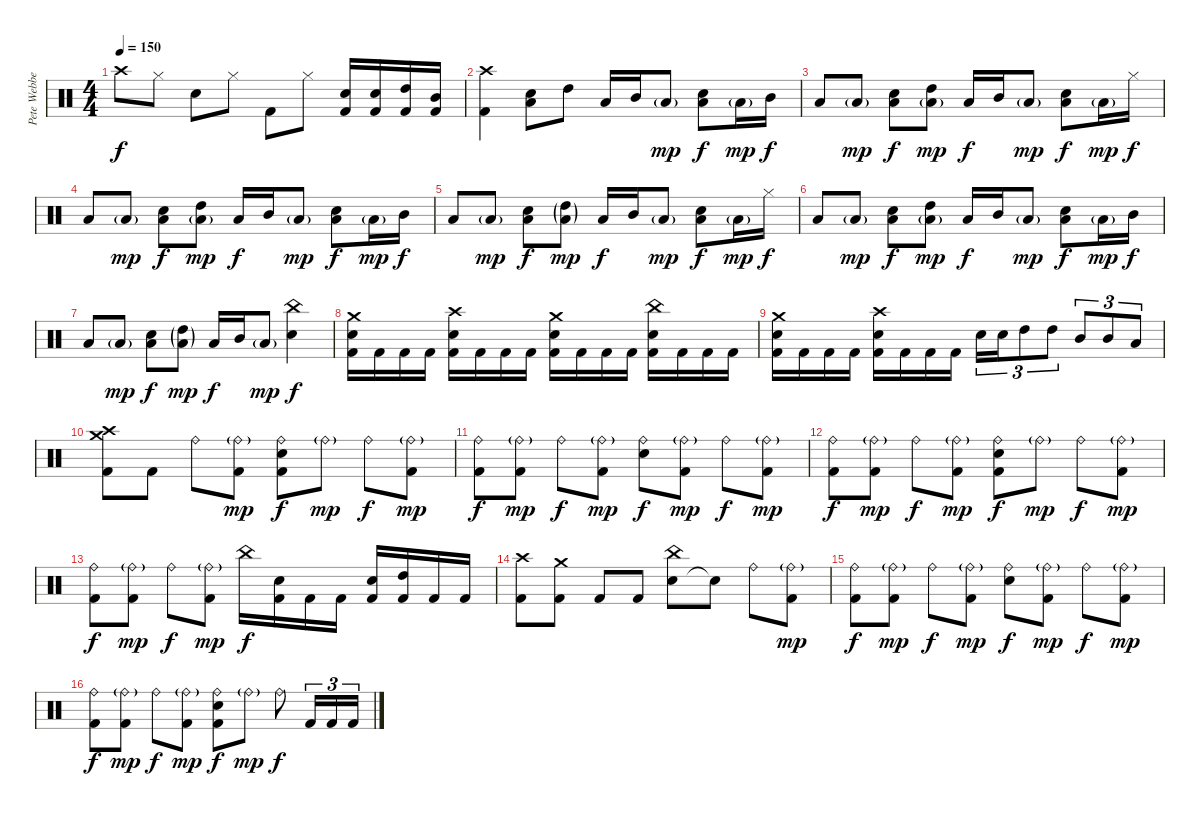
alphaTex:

\track ("Pete Webber" "Pete Webbe") {instrument percussion}
\staff {score}
\articulation defaults
\ts (4 4)
\tempo 150
\clef neutral
\ks c "Crash high (hit)".8{dy f} "Hi-Hat (closed)".8 "Electric Snare (hit)".8 "Hi-Hat (closed)".8 "Kick (hit) 2".8 "Hi-Hat (closed)".8
("Electric Snare (hit)" "Kick (hit) 2").16 ("Electric Snare (hit)" "Kick (hit) 2").16 ("High Tom (hit)" "Kick (hit) 2").16 ("Mid Tom (hit)" "Kick (hit) 2").16 |
("Kick (hit) 2" "Crash high (hit)").4 ("Electric Snare (hit)" "Low Floor Tom (hit)").8 "High Tom (hit)".8 "Low Floor Tom (hit)".16 "Mid Tom (hit)".16 "Low Floor Tom (hit)"{g}.8{dy mp} ("Electric Snare (hit)" "Low Floor Tom (hit)").8{dy f} "Low Floor Tom (hit)"{g}.16{dy mp} "Mid Tom (hit)".16{dy f} |
"Low Floor Tom (hit)".8 "Low Floor Tom (hit)"{g}.8{dy mp} ("Electric Snare (hit)" "Low Floor Tom (hit)").8{dy f} ("High Tom (hit)" "Low Floor Tom (hit)"{g}).8{dy mp} "Low Floor Tom (hit)".16{dy f} "Mid Tom (hit)".16 "Low Floor Tom (hit)"{g}.8{dy mp} ("Electric Snare (hit)" "Low Floor Tom (hit)").8{dy f} "Low Floor Tom (hit)"{g}.16{dy mp} "Hi-Hat (closed)".16{dy f} |
"Low Floor Tom (hit)".8 "Low Floor Tom (hit)"{g}.8{dy mp} ("Electric Snare (hit)" "Low Floor Tom (hit)").8{dy f} ("High Tom (hit)" "Low Floor Tom (hit)"{g}).8{dy mp} "Low Floor Tom (hit)".16{dy f} "Mid Tom (hit)".16 "Low Floor Tom (hit)"{g}.8{dy mp} ("Electric Snare (hit)" "Low Floor Tom (hit)").8{dy f} "Low Floor Tom (hit)"{g}.16{dy mp} "Mid Tom (hit)".16{dy f} |
"Low Floor Tom (hit)".8 "Low Floor Tom (hit)"{g}.8{dy mp} ("Electric Snare (hit)" "Low Floor Tom (hit)").8{dy f} ("High Tom (hit)"{g} "Low Floor Tom (hit)"{g}).8{dy mp} "Low Floor Tom (hit)".16{dy f} "Mid Tom (hit)".16 "Low Floor Tom (hit)"{g}.8{dy mp} ("Electric Snare (hit)" "Low Floor Tom (hit)").8{dy f} "Low Floor Tom (hit)"{g}.16{dy mp} "Hi-Hat (closed)".16{dy f} |
"Low Floor Tom (hit)".8 "Low Floor Tom (hit)"{g}.8{dy mp} ("Electric Snare (hit)" "Low Floor Tom (hit)").8{dy f} ("High Tom (hit)" "Low Floor Tom (hit)"{g}).8{dy mp} "Low Floor Tom (hit)".16{dy f} "Mid Tom (hit)".16 "Low Floor Tom (hit)"{g}.8{dy mp} ("Electric Snare (hit)" "Low Floor Tom (hit)").8{dy f} "Low Floor Tom (hit)"{g}.16{dy mp} "Mid Tom (hit)".16{dy f} |
"Low Floor Tom (hit)".8 "Low Floor Tom (hit)"{g}.8{dy mp} ("Electric Snare (hit)" "Low Floor Tom (hit)").8{dy f} ("High Tom (hit)"{g} "Low Floor Tom (hit)"{g}).8{dy mp} "Low Floor Tom (hit)".16{dy f} "Mid Tom (hit)".16 "Low Floor Tom (hit)"{g}.8{dy mp} ("Electric Snare (hit)" "China (hit)").4{dy f} |
("Electric Snare (hit)" "Kick (hit) 2" "Crash medium (hit)").16 "Kick (hit) 2".16 "Kick (hit) 2".16 "Kick (hit) 2".16 ("Electric Snare (hit)" "Kick (hit) 2" "Crash high (hit)").16 "Kick (hit) 2".16 "Kick (hit) 2".16 "Kick (hit) 2".16 ("Electric Snare (hit)" "Kick (hit) 2" "Crash medium (hit)").16 "Kick (hit) 2".16 "Kick (hit) 2".16 "Kick (hit) 2".16 ("Electric Snare (hit)" "Kick (hit) 2" "China (hit)").16 "Kick (hit) 2".16 "Kick (hit) 2".16 "Kick (hit) 2".16 |
("Electric Snare (hit)" "Kick (hit) 2" "Crash medium (hit)").16 "Kick (hit) 2".16 "Kick (hit) 2".16 "Kick (hit) 2".16 ("Electric Snare (hit)" "Kick (hit) 2" "Crash high (hit)").16 "Kick (hit) 2".16 "Kick (hit) 2".16 "Kick (hit) 2".16 "Electric Snare (hit)".16{tu (3 2)} "Electric Snare (hit)".16{tu (3 2)} "High Tom (hit)".8{tu (3 2)} "High Tom (hit)".8{tu (3 2)} "Mid Tom (hit)".8{tu (3 2)} "Mid Tom (hit)".8{tu (3 2)} "Low Floor Tom (hit)".8{tu (3 2)} |
("Kick (hit) 2" "Crash high (hit)" "Crash medium (hit)").8 "Kick (hit) 2".8 "Ride (bell)".8 ("Ride (bell)"{g} "Kick (hit) 2").8{dy mp} ("Ride (bell)" "Electric Snare (hit)" "Kick (hit) 2").8{dy f} "Ride (bell)"{g}.8{dy mp} "Ride (bell)".8{dy f} ("Ride (bell)"{g} "Kick (hit) 2").8{dy mp} |
("Ride (bell)" "Kick (hit) 2").8{dy f} ("Ride (bell)"{g} "Kick (hit) 2").8{dy mp} "Ride (bell)".8{dy f} ("Ride (bell)"{g} "Kick (hit) 2").8{dy mp} ("Ride (bell)" "Electric Snare (hit)").8{dy f} ("Ride (bell)"{g} "Kick (hit) 2").8{dy mp} "Ride (bell)".8{dy f} ("Ride (bell)"{g} "Kick (hit) 2").8{dy mp} |
("Ride (bell)" "Kick (hit) 2").8{dy f} ("Ride (bell)"{g} "Kick (hit) 2").8{dy mp} "Ride (bell)".8{dy f} ("Ride (bell)"{g} "Kick (hit) 2").8{dy mp} ("Ride (bell)" "Electric Snare (hit)" "Kick (hit) 2").8{dy f} "Ride (bell)"{g}.8{dy mp} "Ride (bell)".8{dy f} ("Ride (bell)"{g} "Kick (hit) 2").8{dy mp} |
("Ride (bell)" "Kick (hit) 2").8{dy f} ("Ride (bell)"{g} "Kick (hit) 2").8{dy mp} "Ride (bell)".8{dy f} ("Ride (bell)"{g} "Kick (hit) 2").8{dy mp} "China (hit)".16{dy f} ("Electric Snare (hit)" "Kick (hit) 2").16 "Kick (hit) 2".16 "Kick (hit) 2".16 ("Electric Snare (hit)" "Kick (hit) 2").16 ("Kick (hit) 2" "High Tom (hit)").16 "Kick (hit) 2".16 "Kick (hit) 2".16 |
("Kick (hit) 2" "Crash high (hit)").8 ("Kick (hit) 2" "Crash medium (hit)").8 "Kick (hit) 2".8 "Kick (hit) 2".8 ("Electric Snare (hit)" "China (hit)").8 "Snare (hit)"{t}.8 "Ride (bell)".8 ("Ride (bell)"{g} "Kick (hit) 2").8{dy mp} |
("Ride (bell)" "Kick (hit) 2").8{dy f} ("Ride (bell)"{g} "Kick (hit) 2").8{dy mp} "Ride (bell)".8{dy f} ("Ride (bell)"{g} "Kick (hit) 2").8{dy mp} ("Ride (bell)" "Electric Snare (hit)").8{dy f} ("Ride (bell)"{g} "Kick (hit) 2").8{dy mp} "Ride (bell)".8{dy f} ("Ride (bell)"{g} "Kick (hit) 2").8{dy mp} |
("Ride (bell)" "Kick (hit) 2").8{dy f} ("Ride (bell)"{g} "Kick (hit) 2").8{dy mp} "Ride (bell)".8{dy f} ("Ride (bell)"{g} "Kick (hit) 2").8{dy mp} ("Ride (bell)" "Electric Snare (hit)" "Kick (hit) 2").8{dy f} "Ride (bell)"{g}.8{dy mp} "Ride (bell)".8{dy f} "Kick (hit) 2".16{tu (3 2)} "Kick (hit) 2".16{tu (3 2)} "Kick (hit) 2".16{tu (3 2)}
